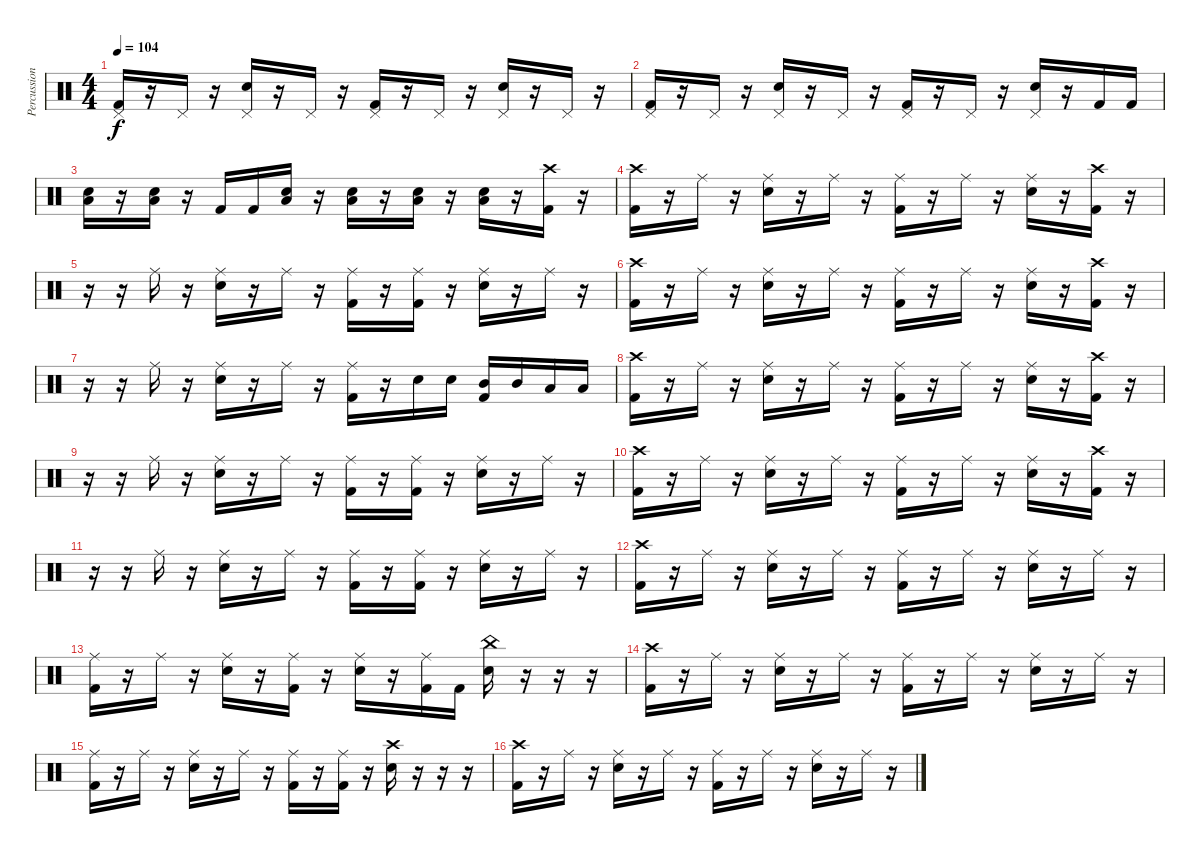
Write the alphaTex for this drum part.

\track ("Percussion" "Percussion") {instrument percussion}
\staff {score}
\articulation defaults
\ts (4 4)
\tempo 104
\clef neutral
\ks c
("Pedal Hi-Hat (hit)" "Kick (hit) 2").16{dy f} r.16 "Pedal Hi-Hat (hit)".16 r.16 ("Pedal Hi-Hat (hit)" "Snare (hit) 2").16 r.16 "Pedal Hi-Hat (hit)".16 r.16 ("Pedal Hi-Hat (hit)" "Kick (hit) 2").16 r.16 "Pedal Hi-Hat (hit)".16 r.16 ("Pedal Hi-Hat (hit)" "Snare (hit) 2").16 r.16 "Pedal Hi-Hat (hit)".16 r.16 |
("Pedal Hi-Hat (hit)" "Kick (hit) 2").16 r.16 "Pedal Hi-Hat (hit)".16 r.16 ("Pedal Hi-Hat (hit)" "Snare (hit) 2").16 r.16 "Pedal Hi-Hat (hit)".16 r.16 ("Pedal Hi-Hat (hit)" "Kick (hit) 2").16 r.16 "Pedal Hi-Hat (hit)".16 r.16 ("Pedal Hi-Hat (hit)" "Snare (hit) 2").16 r.16 "Kick (hit) 2".16 "Kick (hit) 2".16 |
("Snare (hit) 2" "Low Floor Tom (hit)").16 r.16 ("Snare (hit) 2" "Low Floor Tom (hit)").16 r.16 "Kick (hit) 2".16 "Kick (hit) 2".16 ("Snare (hit) 2" "Low Floor Tom (hit)").16 r.16 ("Snare (hit) 2" "Low Floor Tom (hit)").16 r.16 ("Low Floor Tom (hit)" "Snare (hit) 2").16 r.16 ("Snare (hit) 2" "Low Floor Tom (hit)").16 r.16 ("Crash high (hit)" "Kick (hit) 2").16 r.16 |
("Crash high (hit)" "Kick (hit) 2").16 r.16 "Ride (middle)".16 r.16 ("Ride (middle)" "Snare (hit) 2").16 r.16 "Ride (middle)".16 r.16 ("Ride (middle)" "Kick (hit) 2").16 r.16 "Ride (middle)".16 r.16 ("Ride (middle)" "Snare (hit) 2").16 r.16 ("Crash high (hit)" "Kick (hit) 2").16 r.16 |
r.16 r.16 "Ride (middle)".16 r.16 ("Ride (middle)" "Snare (hit) 2").16 r.16 "Ride (middle)".16 r.16 ("Ride (middle)" "Kick (hit) 2").16 r.16 ("Ride (middle)" "Kick (hit) 2").16 r.16 ("Ride (middle)" "Snare (hit) 2").16 r.16 "Ride (middle)".16 r.16 |
("Crash high (hit)" "Kick (hit) 2").16 r.16 "Ride (middle)".16 r.16 ("Ride (middle)" "Snare (hit) 2").16 r.16 "Ride (middle)".16 r.16 ("Ride (middle)" "Kick (hit) 2").16 r.16 "Ride (middle)".16 r.16 ("Ride (middle)" "Snare (hit) 2").16 r.16 ("Crash high (hit)" "Kick (hit) 2").16 r.16 |
r.16 r.16 "Ride (middle)".16 r.16 ("Ride (middle)" "Snare (hit) 2").16 r.16 "Ride (middle)".16 r.16 ("Ride (middle)" "Kick (hit) 2").16 r.16 "Electric Snare (hit)".16 "Electric Snare (hit)".16 ("Mid Tom (hit)" "Kick (hit) 2").16 "Mid Tom (hit)".16 "Low Floor Tom (hit)".16 "Low Floor Tom (hit)".16 |
("Crash high (hit)" "Kick (hit) 2").16 r.16 "Ride (middle)".16 r.16 ("Snare (hit) 2" "Ride (middle)").16 r.16 "Ride (middle)".16 r.16 ("Ride (middle)" "Kick (hit) 2").16 r.16 "Ride (middle)".16 r.16 ("Ride (middle)" "Snare (hit) 2").16 r.16 ("Crash high (hit)" "Kick (hit) 2").16 r.16 |
r.16 r.16 "Ride (middle)".16 r.16 ("Ride (middle)" "Snare (hit) 2").16 r.16 "Ride (middle)".16 r.16 ("Ride (middle)" "Kick (hit) 2").16 r.16 ("Ride (middle)" "Kick (hit) 2").16 r.16 ("Ride (middle)" "Snare (hit) 2").16 r.16 "Ride (middle)".16 r.16 |
("Crash high (hit)" "Kick (hit) 2").16 r.16 "Ride (middle)".16 r.16 ("Snare (hit) 2" "Ride (middle)").16 r.16 "Ride (middle)".16 r.16 ("Ride (middle)" "Kick (hit) 2").16 r.16 "Ride (middle)".16 r.16 ("Ride (middle)" "Snare (hit) 2").16 r.16 ("Crash high (hit)" "Kick (hit) 2").16 r.16 |
r.16 r.16 "Ride (middle)".16 r.16 ("Ride (middle)" "Snare (hit) 2").16 r.16 "Ride (middle)".16 r.16 ("Ride (middle)" "Kick (hit) 2").16 r.16 ("Ride (middle)" "Kick (hit) 2").16 r.16 ("Ride (middle)" "Snare (hit) 2").16 r.16 "Ride (middle)".16 r.16 |
("Crash high (hit)" "Kick (hit) 2").16 r.16 "Ride (middle)".16 r.16 ("Ride (middle)" "Snare (hit) 2").16 r.16 "Ride (middle)".16 r.16 ("Ride (middle)" "Kick (hit) 2").16 r.16 "Ride (middle)".16 r.16 ("Ride (middle)" "Snare (hit) 2").16 r.16 "Ride (middle)".16 r.16 |
("Ride (middle)" "Kick (hit) 2").16 r.16 "Ride (middle)".16 r.16 ("Ride (middle)" "Snare (hit) 2").16 r.16 ("Ride (middle)" "Kick (hit) 2").16 r.16 ("Ride (middle)" "Snare (hit) 2").16 r.16 ("Ride (middle)" "Kick (hit) 2").16 "Kick (hit) 2".16 ("China (hit)" "Snare (hit) 2").16 r.16 r.16 r.16 |
("Crash high (hit)" "Kick (hit) 2").16 r.16 "Ride (middle)".16 r.16 ("Ride (middle)" "Snare (hit) 2").16 r.16 "Ride (middle)".16 r.16 ("Ride (middle)" "Kick (hit) 2").16 r.16 "Ride (middle)".16 r.16 ("Ride (middle)" "Snare (hit) 2").16 r.16 "Ride (middle)".16 r.16 |
("Ride (middle)" "Kick (hit) 2").16 r.16 "Ride (middle)".16 r.16 ("Ride (middle)" "Snare (hit) 2").16 r.16 "Ride (middle)".16 r.16 ("Ride (middle)" "Kick (hit) 2").16 r.16 ("Ride (middle)" "Kick (hit) 2").16 r.16 ("Crash high (hit)" "Snare (hit) 2").16 r.16 r.16 r.16 |
("Crash high (hit)" "Kick (hit) 2").16 r.16 "Ride (middle)".16 r.16 ("Ride (middle)" "Snare (hit) 2").16 r.16 "Ride (middle)".16 r.16 ("Ride (middle)" "Kick (hit) 2").16 r.16 "Ride (middle)".16 r.16 ("Ride (middle)" "Snare (hit) 2").16 r.16 "Ride (middle)".16 r.16
